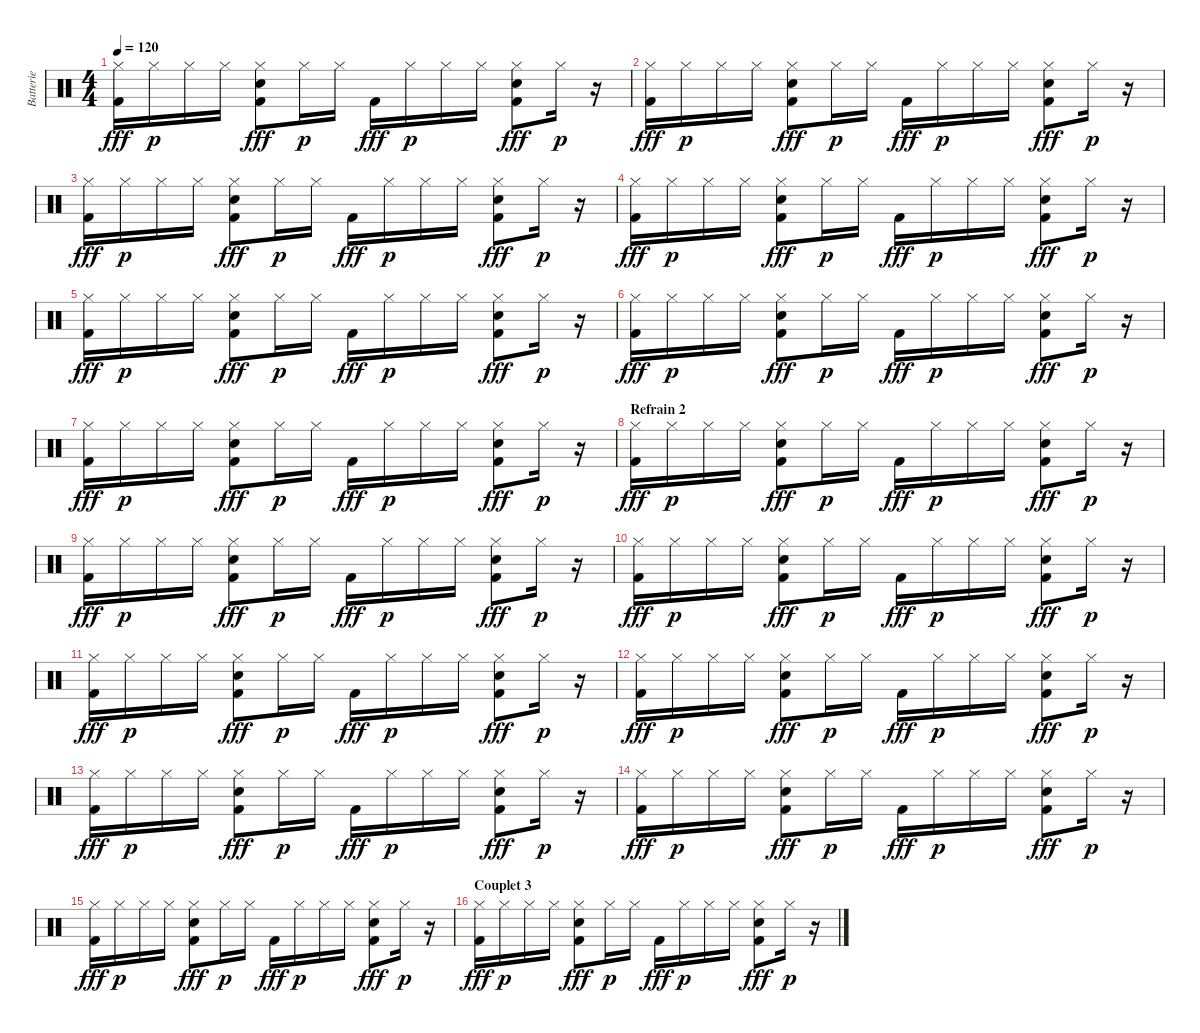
\track ("Batterie" "Batterie") {instrument percussion}
\staff {score}
\articulation defaults
\ts (4 4)
\tempo 120
\clef neutral
\ks c
("Hi-Hat (closed)" "Kick (hit) 2").16{dy fff} "Hi-Hat (closed)".16{dy p} "Hi-Hat (closed)".16 "Hi-Hat (closed)".16 ("Hi-Hat (closed)" "Hand Clap (hit)" "Kick (hit) 2").8{dy fff} "Hi-Hat (closed)".16{dy p} "Hi-Hat (closed)".16 "Kick (hit) 2".16{dy fff} "Hi-Hat (closed)".16{dy p} "Hi-Hat (closed)".16 "Hi-Hat (closed)".16 ("Hi-Hat (closed)" "Hand Clap (hit)" "Kick (hit) 2").8{dy fff} "Hi-Hat (closed)".16{dy p} r.16 |
("Hi-Hat (closed)" "Kick (hit) 2").16{dy fff} "Hi-Hat (closed)".16{dy p} "Hi-Hat (closed)".16 "Hi-Hat (closed)".16 ("Hi-Hat (closed)" "Hand Clap (hit)" "Kick (hit) 2").8{dy fff} "Hi-Hat (closed)".16{dy p} "Hi-Hat (closed)".16 "Kick (hit) 2".16{dy fff} "Hi-Hat (closed)".16{dy p} "Hi-Hat (closed)".16 "Hi-Hat (closed)".16 ("Hi-Hat (closed)" "Hand Clap (hit)" "Kick (hit) 2").8{dy fff} "Hi-Hat (closed)".16{dy p} r.16 |
("Hi-Hat (closed)" "Kick (hit) 2").16{dy fff} "Hi-Hat (closed)".16{dy p} "Hi-Hat (closed)".16 "Hi-Hat (closed)".16 ("Hi-Hat (closed)" "Hand Clap (hit)" "Kick (hit) 2").8{dy fff} "Hi-Hat (closed)".16{dy p} "Hi-Hat (closed)".16 "Kick (hit) 2".16{dy fff} "Hi-Hat (closed)".16{dy p} "Hi-Hat (closed)".16 "Hi-Hat (closed)".16 ("Hi-Hat (closed)" "Hand Clap (hit)" "Kick (hit) 2").8{dy fff} "Hi-Hat (closed)".16{dy p} r.16 |
("Hi-Hat (closed)" "Kick (hit) 2").16{dy fff} "Hi-Hat (closed)".16{dy p} "Hi-Hat (closed)".16 "Hi-Hat (closed)".16 ("Hi-Hat (closed)" "Hand Clap (hit)" "Kick (hit) 2").8{dy fff} "Hi-Hat (closed)".16{dy p} "Hi-Hat (closed)".16 "Kick (hit) 2".16{dy fff} "Hi-Hat (closed)".16{dy p} "Hi-Hat (closed)".16 "Hi-Hat (closed)".16 ("Hi-Hat (closed)" "Hand Clap (hit)" "Kick (hit) 2").8{dy fff} "Hi-Hat (closed)".16{dy p} r.16 |
("Hi-Hat (closed)" "Kick (hit) 2").16{dy fff} "Hi-Hat (closed)".16{dy p} "Hi-Hat (closed)".16 "Hi-Hat (closed)".16 ("Hi-Hat (closed)" "Hand Clap (hit)" "Kick (hit) 2").8{dy fff} "Hi-Hat (closed)".16{dy p} "Hi-Hat (closed)".16 "Kick (hit) 2".16{dy fff} "Hi-Hat (closed)".16{dy p} "Hi-Hat (closed)".16 "Hi-Hat (closed)".16 ("Hi-Hat (closed)" "Hand Clap (hit)" "Kick (hit) 2").8{dy fff} "Hi-Hat (closed)".16{dy p} r.16 |
("Hi-Hat (closed)" "Kick (hit) 2").16{dy fff} "Hi-Hat (closed)".16{dy p} "Hi-Hat (closed)".16 "Hi-Hat (closed)".16 ("Hi-Hat (closed)" "Hand Clap (hit)" "Kick (hit) 2").8{dy fff} "Hi-Hat (closed)".16{dy p} "Hi-Hat (closed)".16 "Kick (hit) 2".16{dy fff} "Hi-Hat (closed)".16{dy p} "Hi-Hat (closed)".16 "Hi-Hat (closed)".16 ("Hi-Hat (closed)" "Hand Clap (hit)" "Kick (hit) 2").8{dy fff} "Hi-Hat (closed)".16{dy p} r.16 |
("Hi-Hat (closed)" "Kick (hit) 2").16{dy fff} "Hi-Hat (closed)".16{dy p} "Hi-Hat (closed)".16 "Hi-Hat (closed)".16 ("Hi-Hat (closed)" "Hand Clap (hit)" "Kick (hit) 2").8{dy fff} "Hi-Hat (closed)".16{dy p} "Hi-Hat (closed)".16 "Kick (hit) 2".16{dy fff} "Hi-Hat (closed)".16{dy p} "Hi-Hat (closed)".16 "Hi-Hat (closed)".16 ("Hi-Hat (closed)" "Hand Clap (hit)" "Kick (hit) 2").8{dy fff} "Hi-Hat (closed)".16{dy p} r.16 |
\section ("" "Refrain 2")
("Hi-Hat (closed)" "Kick (hit) 2").16{dy fff} "Hi-Hat (closed)".16{dy p} "Hi-Hat (closed)".16 "Hi-Hat (closed)".16 ("Hi-Hat (closed)" "Hand Clap (hit)" "Kick (hit) 2").8{dy fff} "Hi-Hat (closed)".16{dy p} "Hi-Hat (closed)".16 "Kick (hit) 2".16{dy fff} "Hi-Hat (closed)".16{dy p} "Hi-Hat (closed)".16 "Hi-Hat (closed)".16 ("Hi-Hat (closed)" "Hand Clap (hit)" "Kick (hit) 2").8{dy fff} "Hi-Hat (closed)".16{dy p} r.16 |
("Hi-Hat (closed)" "Kick (hit) 2").16{dy fff} "Hi-Hat (closed)".16{dy p} "Hi-Hat (closed)".16 "Hi-Hat (closed)".16 ("Hi-Hat (closed)" "Hand Clap (hit)" "Kick (hit) 2").8{dy fff} "Hi-Hat (closed)".16{dy p} "Hi-Hat (closed)".16 "Kick (hit) 2".16{dy fff} "Hi-Hat (closed)".16{dy p} "Hi-Hat (closed)".16 "Hi-Hat (closed)".16 ("Hi-Hat (closed)" "Hand Clap (hit)" "Kick (hit) 2").8{dy fff} "Hi-Hat (closed)".16{dy p} r.16 |
("Hi-Hat (closed)" "Kick (hit) 2").16{dy fff} "Hi-Hat (closed)".16{dy p} "Hi-Hat (closed)".16 "Hi-Hat (closed)".16 ("Hi-Hat (closed)" "Hand Clap (hit)" "Kick (hit) 2").8{dy fff} "Hi-Hat (closed)".16{dy p} "Hi-Hat (closed)".16 "Kick (hit) 2".16{dy fff} "Hi-Hat (closed)".16{dy p} "Hi-Hat (closed)".16 "Hi-Hat (closed)".16 ("Hi-Hat (closed)" "Hand Clap (hit)" "Kick (hit) 2").8{dy fff} "Hi-Hat (closed)".16{dy p} r.16 |
("Hi-Hat (closed)" "Kick (hit) 2").16{dy fff} "Hi-Hat (closed)".16{dy p} "Hi-Hat (closed)".16 "Hi-Hat (closed)".16 ("Hi-Hat (closed)" "Hand Clap (hit)" "Kick (hit) 2").8{dy fff} "Hi-Hat (closed)".16{dy p} "Hi-Hat (closed)".16 "Kick (hit) 2".16{dy fff} "Hi-Hat (closed)".16{dy p} "Hi-Hat (closed)".16 "Hi-Hat (closed)".16 ("Hi-Hat (closed)" "Hand Clap (hit)" "Kick (hit) 2").8{dy fff} "Hi-Hat (closed)".16{dy p} r.16 |
("Hi-Hat (closed)" "Kick (hit) 2").16{dy fff} "Hi-Hat (closed)".16{dy p} "Hi-Hat (closed)".16 "Hi-Hat (closed)".16 ("Hi-Hat (closed)" "Hand Clap (hit)" "Kick (hit) 2").8{dy fff} "Hi-Hat (closed)".16{dy p} "Hi-Hat (closed)".16 "Kick (hit) 2".16{dy fff} "Hi-Hat (closed)".16{dy p} "Hi-Hat (closed)".16 "Hi-Hat (closed)".16 ("Hi-Hat (closed)" "Hand Clap (hit)" "Kick (hit) 2").8{dy fff} "Hi-Hat (closed)".16{dy p} r.16 |
("Hi-Hat (closed)" "Kick (hit) 2").16{dy fff} "Hi-Hat (closed)".16{dy p} "Hi-Hat (closed)".16 "Hi-Hat (closed)".16 ("Hi-Hat (closed)" "Hand Clap (hit)" "Kick (hit) 2").8{dy fff} "Hi-Hat (closed)".16{dy p} "Hi-Hat (closed)".16 "Kick (hit) 2".16{dy fff} "Hi-Hat (closed)".16{dy p} "Hi-Hat (closed)".16 "Hi-Hat (closed)".16 ("Hi-Hat (closed)" "Hand Clap (hit)" "Kick (hit) 2").8{dy fff} "Hi-Hat (closed)".16{dy p} r.16 |
("Hi-Hat (closed)" "Kick (hit) 2").16{dy fff} "Hi-Hat (closed)".16{dy p} "Hi-Hat (closed)".16 "Hi-Hat (closed)".16 ("Hi-Hat (closed)" "Hand Clap (hit)" "Kick (hit) 2").8{dy fff} "Hi-Hat (closed)".16{dy p} "Hi-Hat (closed)".16 "Kick (hit) 2".16{dy fff} "Hi-Hat (closed)".16{dy p} "Hi-Hat (closed)".16 "Hi-Hat (closed)".16 ("Hi-Hat (closed)" "Hand Clap (hit)" "Kick (hit) 2").8{dy fff} "Hi-Hat (closed)".16{dy p} r.16 |
("Hi-Hat (closed)" "Kick (hit) 2").16{dy fff} "Hi-Hat (closed)".16{dy p} "Hi-Hat (closed)".16 "Hi-Hat (closed)".16 ("Hi-Hat (closed)" "Hand Clap (hit)" "Kick (hit) 2").8{dy fff} "Hi-Hat (closed)".16{dy p} "Hi-Hat (closed)".16 "Kick (hit) 2".16{dy fff} "Hi-Hat (closed)".16{dy p} "Hi-Hat (closed)".16 "Hi-Hat (closed)".16 ("Hi-Hat (closed)" "Hand Clap (hit)" "Kick (hit) 2").8{dy fff} "Hi-Hat (closed)".16{dy p} r.16 |
\section ("" "Couplet 3")
("Hi-Hat (closed)" "Kick (hit) 2").16{dy fff} "Hi-Hat (closed)".16{dy p} "Hi-Hat (closed)".16 "Hi-Hat (closed)".16 ("Hi-Hat (closed)" "Hand Clap (hit)" "Kick (hit) 2").8{dy fff} "Hi-Hat (closed)".16{dy p} "Hi-Hat (closed)".16 "Kick (hit) 2".16{dy fff} "Hi-Hat (closed)".16{dy p} "Hi-Hat (closed)".16 "Hi-Hat (closed)".16 ("Hi-Hat (closed)" "Hand Clap (hit)" "Kick (hit) 2").8{dy fff} "Hi-Hat (closed)".16{dy p} r.16
